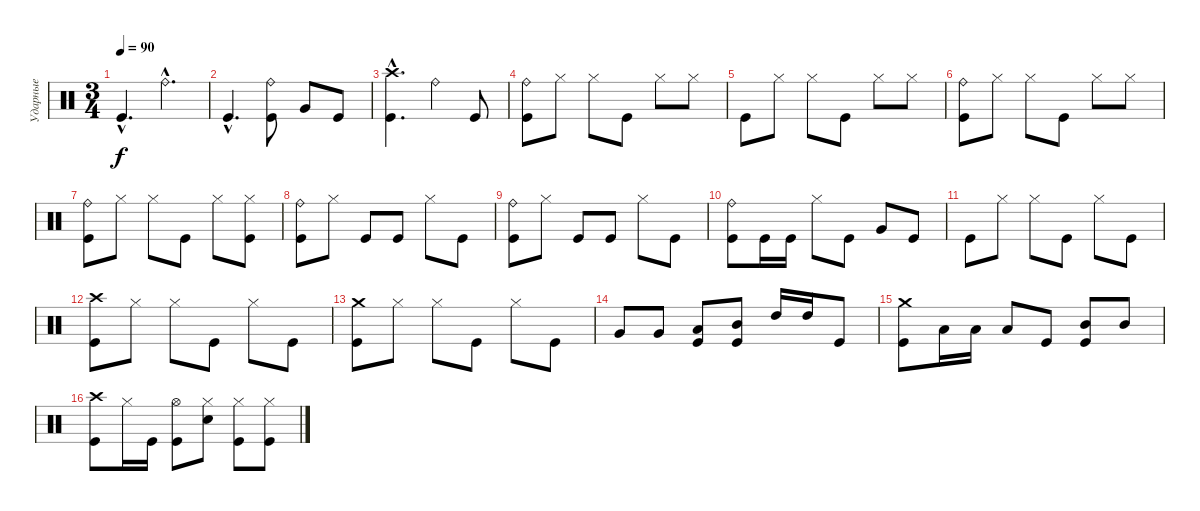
\track ("Ударные" "Ударные") {instrument percussion}
\staff {score}
\articulation defaults
\ts (3 4)
\tempo 90
\clef neutral
\ks c "Kick (hit)"{hac}.4{d dy f} "Ride (bell)"{hac}.4{d}
|
"Kick (hit)"{hac}.4{d} ("Ride (bell)" "Kick (hit)").8 "Very Low Tom (hit)".8 "Kick (hit)".8 |
("Crash high (hit)"{hac} "Kick (hit)"{hac}).4{d} "Ride (bell)".4 "Kick (hit)".8 |
("Ride (bell)" "Kick (hit)").8 "Hi-Hat (closed)".8 "Hi-Hat (closed)".8 "Kick (hit)".8 "Hi-Hat (closed)".8 "Hi-Hat (closed)".8 |
"Kick (hit)".8 "Hi-Hat (closed)".8 "Hi-Hat (closed)".8 "Kick (hit)".8 "Hi-Hat (closed)".8 "Hi-Hat (closed)".8 |
("Ride (bell)" "Kick (hit)").8 "Hi-Hat (closed)".8 "Hi-Hat (closed)".8 "Kick (hit)".8 "Hi-Hat (closed)".8 "Hi-Hat (closed)".8 |
("Ride (bell)" "Kick (hit)").8 "Hi-Hat (closed)".8 "Hi-Hat (closed)".8 "Kick (hit)".8 "Hi-Hat (closed)".8 ("Kick (hit)" "Hi-Hat (closed)").8 |
("Ride (bell)" "Kick (hit)").8 "Hi-Hat (closed)".8 "Kick (hit)".8 "Kick (hit)".8 "Hi-Hat (closed)".8 "Kick (hit)".8 |
("Ride (bell)" "Kick (hit)").8 "Hi-Hat (closed)".8 "Kick (hit)".8 "Kick (hit)".8 "Hi-Hat (closed)".8 "Kick (hit)".8 |
("Ride (bell)" "Kick (hit)").8 "Kick (hit)".16 "Kick (hit)".16 "Hi-Hat (closed)".8 "Kick (hit)".8 "Very Low Tom (hit)".8 "Kick (hit)".8 |
"Kick (hit)".8 "Hi-Hat (closed)".8 "Hi-Hat (closed)".8 "Kick (hit)".8 "Hi-Hat (closed)".8 "Kick (hit)".8 |
("Crash high (hit)" "Kick (hit)").8 "Hi-Hat (closed)".8 "Hi-Hat (closed)".8 "Kick (hit)".8 "Hi-Hat (closed)".8 "Kick (hit)".8 |
("Crash medium (hit)" "Kick (hit)").8 "Hi-Hat (closed)".8 "Hi-Hat (closed)".8 "Kick (hit)".8 "Hi-Hat (closed)".8 "Kick (hit)".8 |
"Very Low Tom (hit)".8 "Very Low Tom (hit)".8 ("Low Tom (hit)" "Kick (hit)").8 ("Mid Tom (hit)" "Kick (hit)").8 "High Tom (hit)".16 "High Tom (hit)".16 "Kick (hit)".8 |
("Crash medium (hit)" "Kick (hit)").8 "Low Tom (hit)".16 "Low Tom (hit)".16 "Low Tom (hit)".8 "Kick (hit)".8 ("Mid Tom (hit)" "Kick (hit)").8 "Mid Tom (hit)".8 |
("Crash high (hit)" "Kick (hit)").8 "Hi-Hat (closed)".16 "Kick (hit)".16 ("Hi-Hat (open)" "Kick (hit)").8 ("Hi-Hat (closed)" "Electric Snare (hit)").8 ("Hi-Hat (closed)" "Kick (hit)").8 ("Hi-Hat (closed)" "Kick (hit)").8
